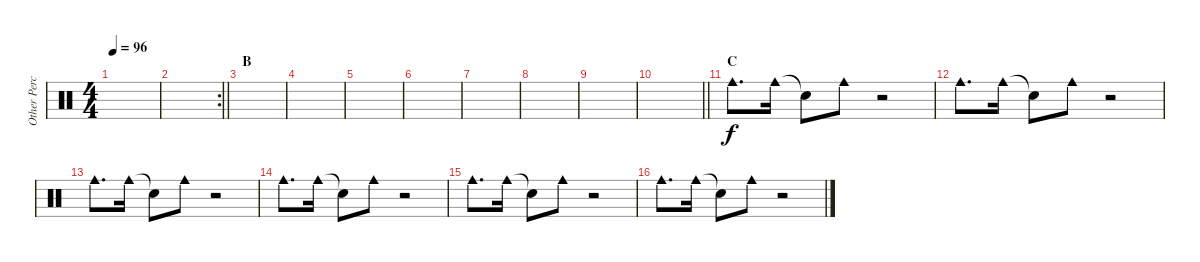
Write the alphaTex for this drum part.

\track ("Other Perc." "Other Perc") {instrument percussion}
\staff {score}
\articulation defaults
\ts (4 4)
\tempo 96
\clef neutral
\ks c
|
\rc 2
\barLineRight lightlight
|
\section ("" "B")
|
|
|
|
|
|
|
\barLineRight lightlight
|
\section ("" "C")
"Cowbell medium (hit)".8{d} "Cowbell medium (hit)".16 "Snare (hit)"{t}.8 "Cowbell medium (hit)".8 r.2 |
"Cowbell medium (hit)".8{d} "Cowbell medium (hit)".16 "Snare (hit)"{t}.8 "Cowbell medium (hit)".8 r.2 |
"Cowbell medium (hit)".8{d} "Cowbell medium (hit)".16 "Snare (hit)"{t}.8 "Cowbell medium (hit)".8 r.2 |
"Cowbell medium (hit)".8{d} "Cowbell medium (hit)".16 "Snare (hit)"{t}.8 "Cowbell medium (hit)".8 r.2 |
"Cowbell medium (hit)".8{d} "Cowbell medium (hit)".16 "Snare (hit)"{t}.8 "Cowbell medium (hit)".8 r.2 |
"Cowbell medium (hit)".8{d} "Cowbell medium (hit)".16 "Snare (hit)"{t}.8 "Cowbell medium (hit)".8 r.2
